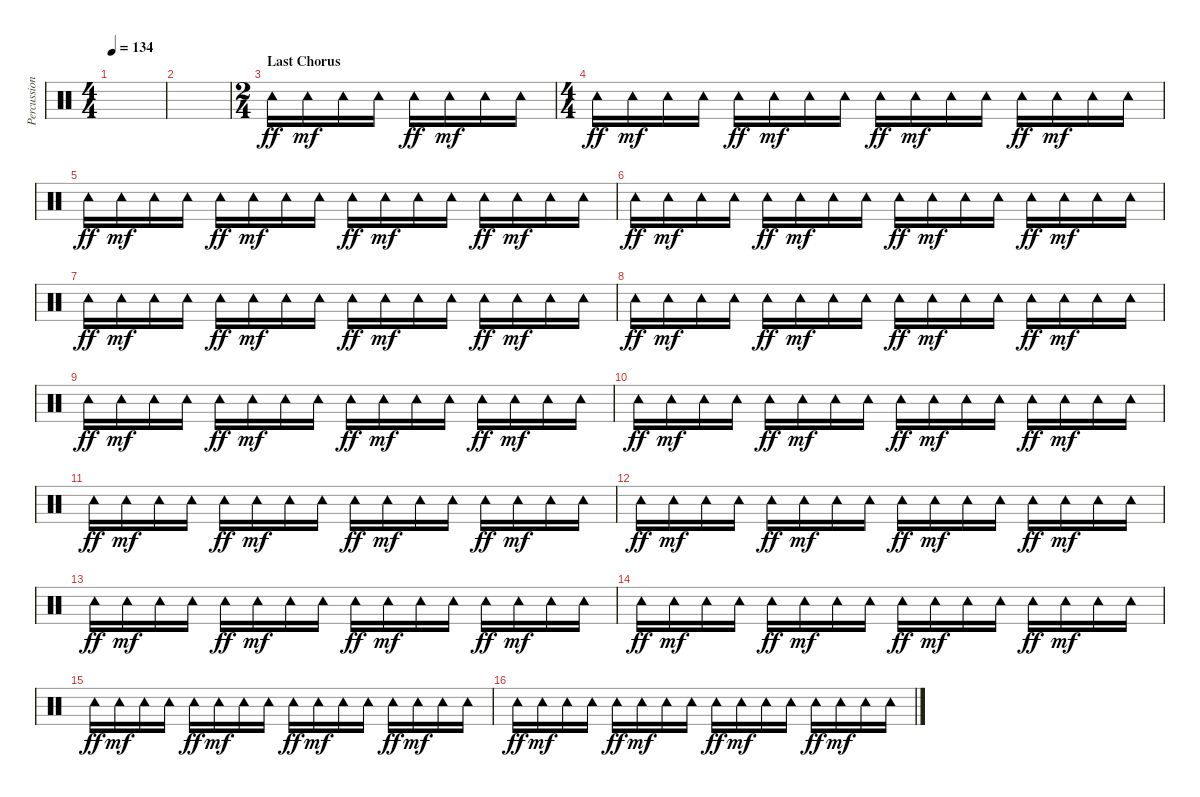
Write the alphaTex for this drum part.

\track ("Percussion" "Percussion") {instrument percussion}
\staff {score}
\articulation defaults
\ts (4 4)
\tempo 134
\clef neutral
\ks c
|
|
\ts (2 4)
\section ("" "Last Chorus")
"Tambourine (hit)".16{dy ff} "Tambourine (hit)".16{dy mf} "Tambourine (hit)".16 "Tambourine (hit)".16 "Tambourine (hit)".16{dy ff} "Tambourine (hit)".16{dy mf} "Tambourine (hit)".16 "Tambourine (hit)".16 |
\ts (4 4)
"Tambourine (hit)".16{dy ff} "Tambourine (hit)".16{dy mf} "Tambourine (hit)".16 "Tambourine (hit)".16 "Tambourine (hit)".16{dy ff} "Tambourine (hit)".16{dy mf} "Tambourine (hit)".16 "Tambourine (hit)".16 "Tambourine (hit)".16{dy ff} "Tambourine (hit)".16{dy mf} "Tambourine (hit)".16 "Tambourine (hit)".16 "Tambourine (hit)".16{dy ff} "Tambourine (hit)".16{dy mf} "Tambourine (hit)".16 "Tambourine (hit)".16 |
"Tambourine (hit)".16{dy ff} "Tambourine (hit)".16{dy mf} "Tambourine (hit)".16 "Tambourine (hit)".16 "Tambourine (hit)".16{dy ff} "Tambourine (hit)".16{dy mf} "Tambourine (hit)".16 "Tambourine (hit)".16 "Tambourine (hit)".16{dy ff} "Tambourine (hit)".16{dy mf} "Tambourine (hit)".16 "Tambourine (hit)".16 "Tambourine (hit)".16{dy ff} "Tambourine (hit)".16{dy mf} "Tambourine (hit)".16 "Tambourine (hit)".16 |
"Tambourine (hit)".16{dy ff} "Tambourine (hit)".16{dy mf} "Tambourine (hit)".16 "Tambourine (hit)".16 "Tambourine (hit)".16{dy ff} "Tambourine (hit)".16{dy mf} "Tambourine (hit)".16 "Tambourine (hit)".16 "Tambourine (hit)".16{dy ff} "Tambourine (hit)".16{dy mf} "Tambourine (hit)".16 "Tambourine (hit)".16 "Tambourine (hit)".16{dy ff} "Tambourine (hit)".16{dy mf} "Tambourine (hit)".16 "Tambourine (hit)".16 |
"Tambourine (hit)".16{dy ff} "Tambourine (hit)".16{dy mf} "Tambourine (hit)".16 "Tambourine (hit)".16 "Tambourine (hit)".16{dy ff} "Tambourine (hit)".16{dy mf} "Tambourine (hit)".16 "Tambourine (hit)".16 "Tambourine (hit)".16{dy ff} "Tambourine (hit)".16{dy mf} "Tambourine (hit)".16 "Tambourine (hit)".16 "Tambourine (hit)".16{dy ff} "Tambourine (hit)".16{dy mf} "Tambourine (hit)".16 "Tambourine (hit)".16 |
"Tambourine (hit)".16{dy ff} "Tambourine (hit)".16{dy mf} "Tambourine (hit)".16 "Tambourine (hit)".16 "Tambourine (hit)".16{dy ff} "Tambourine (hit)".16{dy mf} "Tambourine (hit)".16 "Tambourine (hit)".16 "Tambourine (hit)".16{dy ff} "Tambourine (hit)".16{dy mf} "Tambourine (hit)".16 "Tambourine (hit)".16 "Tambourine (hit)".16{dy ff} "Tambourine (hit)".16{dy mf} "Tambourine (hit)".16 "Tambourine (hit)".16 |
"Tambourine (hit)".16{dy ff} "Tambourine (hit)".16{dy mf} "Tambourine (hit)".16 "Tambourine (hit)".16 "Tambourine (hit)".16{dy ff} "Tambourine (hit)".16{dy mf} "Tambourine (hit)".16 "Tambourine (hit)".16 "Tambourine (hit)".16{dy ff} "Tambourine (hit)".16{dy mf} "Tambourine (hit)".16 "Tambourine (hit)".16 "Tambourine (hit)".16{dy ff} "Tambourine (hit)".16{dy mf} "Tambourine (hit)".16 "Tambourine (hit)".16 |
"Tambourine (hit)".16{dy ff} "Tambourine (hit)".16{dy mf} "Tambourine (hit)".16 "Tambourine (hit)".16 "Tambourine (hit)".16{dy ff} "Tambourine (hit)".16{dy mf} "Tambourine (hit)".16 "Tambourine (hit)".16 "Tambourine (hit)".16{dy ff} "Tambourine (hit)".16{dy mf} "Tambourine (hit)".16 "Tambourine (hit)".16 "Tambourine (hit)".16{dy ff} "Tambourine (hit)".16{dy mf} "Tambourine (hit)".16 "Tambourine (hit)".16 |
"Tambourine (hit)".16{dy ff} "Tambourine (hit)".16{dy mf} "Tambourine (hit)".16 "Tambourine (hit)".16 "Tambourine (hit)".16{dy ff} "Tambourine (hit)".16{dy mf} "Tambourine (hit)".16 "Tambourine (hit)".16 "Tambourine (hit)".16{dy ff} "Tambourine (hit)".16{dy mf} "Tambourine (hit)".16 "Tambourine (hit)".16 "Tambourine (hit)".16{dy ff} "Tambourine (hit)".16{dy mf} "Tambourine (hit)".16 "Tambourine (hit)".16 |
"Tambourine (hit)".16{dy ff} "Tambourine (hit)".16{dy mf} "Tambourine (hit)".16 "Tambourine (hit)".16 "Tambourine (hit)".16{dy ff} "Tambourine (hit)".16{dy mf} "Tambourine (hit)".16 "Tambourine (hit)".16 "Tambourine (hit)".16{dy ff} "Tambourine (hit)".16{dy mf} "Tambourine (hit)".16 "Tambourine (hit)".16 "Tambourine (hit)".16{dy ff} "Tambourine (hit)".16{dy mf} "Tambourine (hit)".16 "Tambourine (hit)".16 |
"Tambourine (hit)".16{dy ff} "Tambourine (hit)".16{dy mf} "Tambourine (hit)".16 "Tambourine (hit)".16 "Tambourine (hit)".16{dy ff} "Tambourine (hit)".16{dy mf} "Tambourine (hit)".16 "Tambourine (hit)".16 "Tambourine (hit)".16{dy ff} "Tambourine (hit)".16{dy mf} "Tambourine (hit)".16 "Tambourine (hit)".16 "Tambourine (hit)".16{dy ff} "Tambourine (hit)".16{dy mf} "Tambourine (hit)".16 "Tambourine (hit)".16 |
"Tambourine (hit)".16{dy ff} "Tambourine (hit)".16{dy mf} "Tambourine (hit)".16 "Tambourine (hit)".16 "Tambourine (hit)".16{dy ff} "Tambourine (hit)".16{dy mf} "Tambourine (hit)".16 "Tambourine (hit)".16 "Tambourine (hit)".16{dy ff} "Tambourine (hit)".16{dy mf} "Tambourine (hit)".16 "Tambourine (hit)".16 "Tambourine (hit)".16{dy ff} "Tambourine (hit)".16{dy mf} "Tambourine (hit)".16 "Tambourine (hit)".16 |
"Tambourine (hit)".16{dy ff} "Tambourine (hit)".16{dy mf} "Tambourine (hit)".16 "Tambourine (hit)".16 "Tambourine (hit)".16{dy ff} "Tambourine (hit)".16{dy mf} "Tambourine (hit)".16 "Tambourine (hit)".16 "Tambourine (hit)".16{dy ff} "Tambourine (hit)".16{dy mf} "Tambourine (hit)".16 "Tambourine (hit)".16 "Tambourine (hit)".16{dy ff} "Tambourine (hit)".16{dy mf} "Tambourine (hit)".16 "Tambourine (hit)".16 |
"Tambourine (hit)".16{dy ff} "Tambourine (hit)".16{dy mf} "Tambourine (hit)".16 "Tambourine (hit)".16 "Tambourine (hit)".16{dy ff} "Tambourine (hit)".16{dy mf} "Tambourine (hit)".16 "Tambourine (hit)".16 "Tambourine (hit)".16{dy ff} "Tambourine (hit)".16{dy mf} "Tambourine (hit)".16 "Tambourine (hit)".16 "Tambourine (hit)".16{dy ff} "Tambourine (hit)".16{dy mf} "Tambourine (hit)".16 "Tambourine (hit)".16
